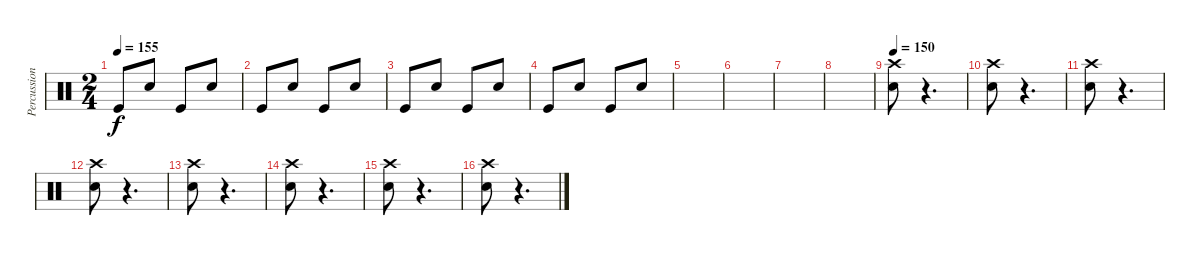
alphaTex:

\track ("Percussions" "Percussion") {instrument percussion}
\staff {score}
\articulation defaults
\ts (2 4)
\tempo 155
\clef neutral
\ks c "Kick (hit)".8{dy f} "Snare (hit) 2".8 "Kick (hit)".8 "Snare (hit) 2".8
|
"Kick (hit)".8 "Snare (hit) 2".8 "Kick (hit)".8 "Snare (hit) 2".8 |
"Kick (hit)".8 "Snare (hit) 2".8 "Kick (hit)".8 "Snare (hit) 2".8 |
"Kick (hit)".8 "Snare (hit) 2".8 "Kick (hit)".8 "Snare (hit) 2".8 |
|
|
|
|
\tempo 150
("Crash high (hit)" "Snare (hit) 2").8 r.4{d} |
("Crash high (hit)" "Snare (hit) 2").8 r.4{d} |
("Crash high (hit)" "Snare (hit) 2").8 r.4{d} |
("Crash high (hit)" "Snare (hit) 2").8 r.4{d} |
("Crash high (hit)" "Snare (hit) 2").8 r.4{d} |
("Crash high (hit)" "Snare (hit) 2").8 r.4{d} |
("Crash high (hit)" "Snare (hit) 2").8 r.4{d} |
("Crash high (hit)" "Snare (hit) 2").8 r.4{d}
